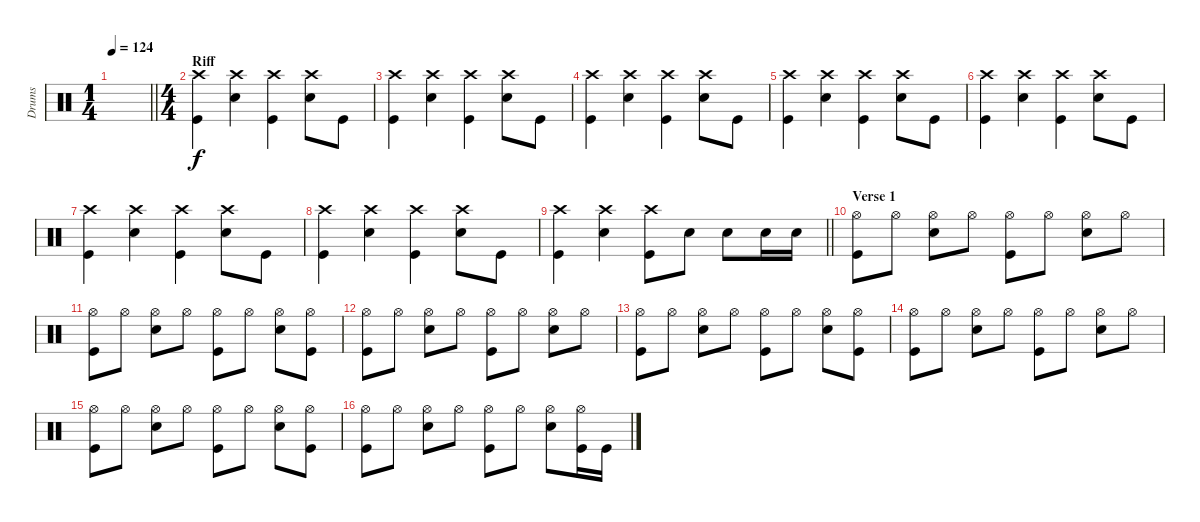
\track ("Drums" "Drums") {instrument percussion}
\staff {score}
\articulation defaults
\ts (1 4)
\tempo 124
\clef neutral
\barLineRight lightlight
\ks c
|
\ts (4 4)
\section ("" "Riff")
("Kick (hit)" "Crash high (hit)").4 ("Snare (hit) 2" "Crash high (hit)").4 ("Kick (hit)" "Crash high (hit)").4 ("Snare (hit) 2" "Crash high (hit)").8 "Kick (hit)".8 |
("Kick (hit)" "Crash high (hit)").4 ("Snare (hit) 2" "Crash high (hit)").4 ("Kick (hit)" "Crash high (hit)").4 ("Snare (hit) 2" "Crash high (hit)").8 "Kick (hit)".8 |
("Kick (hit)" "Crash high (hit)").4 ("Snare (hit) 2" "Crash high (hit)").4 ("Kick (hit)" "Crash high (hit)").4 ("Snare (hit) 2" "Crash high (hit)").8 "Kick (hit)".8 |
("Kick (hit)" "Crash high (hit)").4 ("Snare (hit) 2" "Crash high (hit)").4 ("Kick (hit)" "Crash high (hit)").4 ("Snare (hit) 2" "Crash high (hit)").8 "Kick (hit)".8 |
("Kick (hit)" "Crash high (hit)").4 ("Snare (hit) 2" "Crash high (hit)").4 ("Kick (hit)" "Crash high (hit)").4 ("Snare (hit) 2" "Crash high (hit)").8 "Kick (hit)".8 |
("Kick (hit)" "Crash high (hit)").4 ("Snare (hit) 2" "Crash high (hit)").4 ("Kick (hit)" "Crash high (hit)").4 ("Snare (hit) 2" "Crash high (hit)").8 "Kick (hit)".8 |
("Kick (hit)" "Crash high (hit)").4 ("Snare (hit) 2" "Crash high (hit)").4 ("Kick (hit)" "Crash high (hit)").4 ("Snare (hit) 2" "Crash high (hit)").8 "Kick (hit)".8 |
\barLineRight lightlight
("Kick (hit)" "Crash high (hit)").4 ("Snare (hit) 2" "Crash high (hit)").4 ("Kick (hit)" "Crash high (hit)").8 "Snare (hit) 2".8 "Snare (hit) 2".8 "Snare (hit) 2".16 "Snare (hit) 2".16 |
\section ("" "Verse 1")
("Kick (hit)" "Hi-Hat (open)").8 "Hi-Hat (open)".8 ("Snare (hit) 2" "Hi-Hat (open)").8 "Hi-Hat (open)".8 ("Kick (hit)" "Hi-Hat (open)").8 "Hi-Hat (open)".8 ("Snare (hit) 2" "Hi-Hat (open)").8 "Hi-Hat (open)".8 |
("Kick (hit)" "Hi-Hat (open)").8 "Hi-Hat (open)".8 ("Snare (hit) 2" "Hi-Hat (open)").8 "Hi-Hat (open)".8 ("Kick (hit)" "Hi-Hat (open)").8 "Hi-Hat (open)".8 ("Snare (hit) 2" "Hi-Hat (open)").8 ("Hi-Hat (open)" "Kick (hit)").8 |
("Kick (hit)" "Hi-Hat (open)").8 "Hi-Hat (open)".8 ("Snare (hit) 2" "Hi-Hat (open)").8 "Hi-Hat (open)".8 ("Kick (hit)" "Hi-Hat (open)").8 "Hi-Hat (open)".8 ("Snare (hit) 2" "Hi-Hat (open)").8 "Hi-Hat (open)".8 |
("Kick (hit)" "Hi-Hat (open)").8 "Hi-Hat (open)".8 ("Snare (hit) 2" "Hi-Hat (open)").8 "Hi-Hat (open)".8 ("Kick (hit)" "Hi-Hat (open)").8 "Hi-Hat (open)".8 ("Snare (hit) 2" "Hi-Hat (open)").8 ("Hi-Hat (open)" "Kick (hit)").8 |
("Kick (hit)" "Hi-Hat (open)").8 "Hi-Hat (open)".8 ("Snare (hit) 2" "Hi-Hat (open)").8 "Hi-Hat (open)".8 ("Kick (hit)" "Hi-Hat (open)").8 "Hi-Hat (open)".8 ("Snare (hit) 2" "Hi-Hat (open)").8 "Hi-Hat (open)".8 |
("Kick (hit)" "Hi-Hat (open)").8 "Hi-Hat (open)".8 ("Snare (hit) 2" "Hi-Hat (open)").8 "Hi-Hat (open)".8 ("Kick (hit)" "Hi-Hat (open)").8 "Hi-Hat (open)".8 ("Snare (hit) 2" "Hi-Hat (open)").8 ("Hi-Hat (open)" "Kick (hit)").8 |
("Kick (hit)" "Hi-Hat (open)").8 "Hi-Hat (open)".8 ("Snare (hit) 2" "Hi-Hat (open)").8 "Hi-Hat (open)".8 ("Kick (hit)" "Hi-Hat (open)").8 "Hi-Hat (open)".8 ("Snare (hit) 2" "Hi-Hat (open)").8 ("Hi-Hat (open)" "Kick (hit)").16 "Kick (hit)".16
